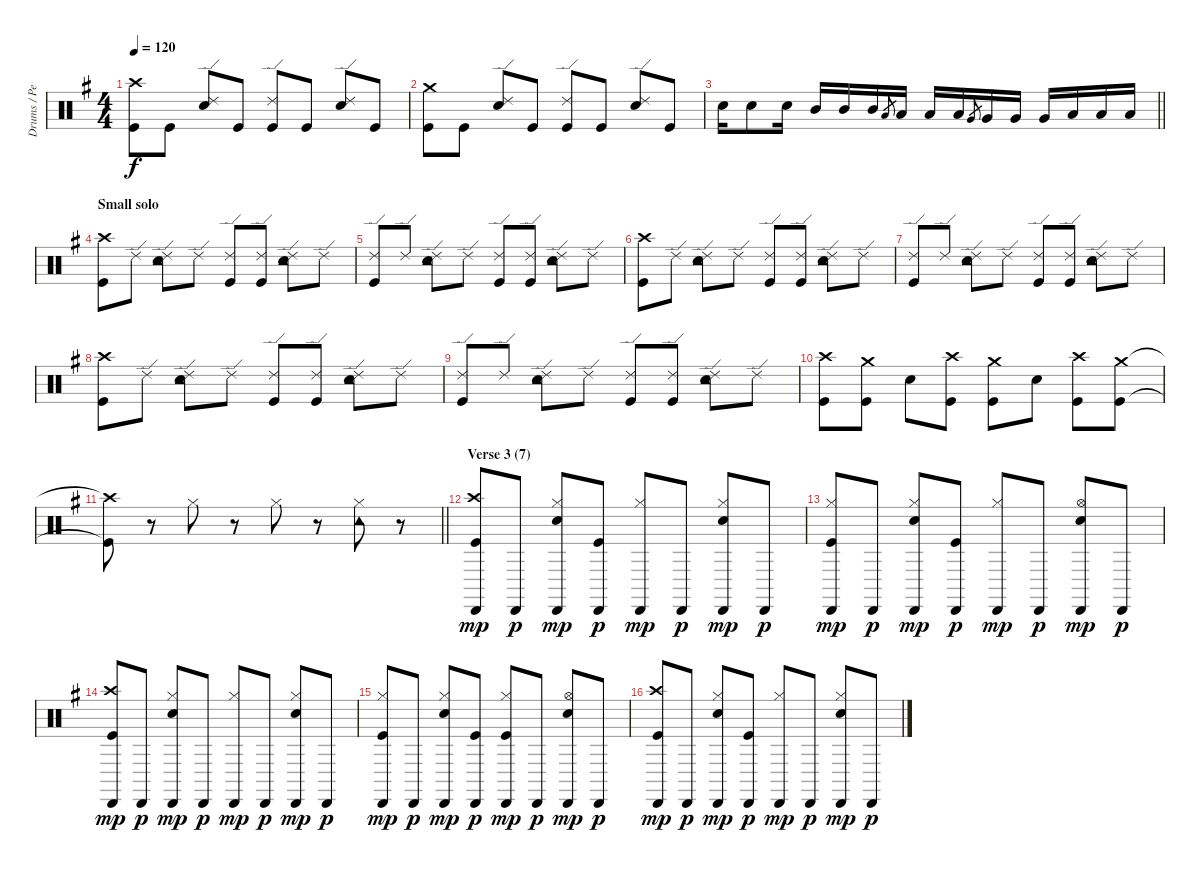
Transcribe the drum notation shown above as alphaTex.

\track ("Drums / Percussion" "Drums / Pe") {instrument percussion}
\staff {score}
\articulation defaults
\ts (4 4)
\tempo 120
\clef neutral
\ks eminor
("Crash high (hit)" "Kick (hit)").8{dy f} "Kick (hit)".8 ("Ride (edge) 2" "Snare (hit) 2").8 "Kick (hit)".8 ("Ride (edge) 2" "Kick (hit)").8 "Kick (hit)".8 ("Ride (edge) 2" "Snare (hit) 2").8 "Kick (hit)".8 |
("Crash medium (hit)" "Kick (hit)").8 "Kick (hit)".8 ("Ride (edge) 2" "Snare (hit) 2").8 "Kick (hit)".8 ("Ride (edge) 2" "Kick (hit)").8 "Kick (hit)".8 ("Ride (edge) 2" "Snare (hit) 2").8 "Kick (hit)".8 |
\barLineRight lightlight "Snare (hit) 2".16{balance 8} "Snare (hit) 2".8 "Snare (hit) 2".16 "Mid Tom (hit)".16{balance 0} "Mid Tom (hit)".16 "Mid Tom (hit)".16{balance 2} "Low Tom (hit)".8{gr} "Low Tom (hit)".16 "Low Tom (hit)".16{balance 4} "Low Tom (hit)".16 "Very Low Tom (hit)".8{gr} "Very Low Tom (hit)".16{balance 10} "Very Low Tom (hit)".16 "Very Low Tom (hit)".16{balance 12} "Low Floor Tom (hit)".16 "Low Floor Tom (hit)".16{balance 14} "Low Floor Tom (hit)".16
|
\section ("" "Small solo")
("Crash high (hit)" "Kick (hit)").8{balance 8} "Ride (edge) 2".8 ("Ride (edge) 2" "Tambourine (hit)" "Snare (hit) 2").8 "Ride (edge) 2".8 ("Ride (edge) 2" "Kick (hit)").8 ("Ride (edge) 2" "Kick (hit)").8 ("Ride (edge) 2" "Tambourine (hit)" "Snare (hit) 2").8 "Ride (edge) 2".8 |
("Ride (edge) 2" "Kick (hit)").8 "Ride (edge) 2".8 ("Ride (edge) 2" "Tambourine (hit)" "Snare (hit) 2").8 "Ride (edge) 2".8 ("Ride (edge) 2" "Kick (hit)").8 ("Ride (edge) 2" "Kick (hit)").8 ("Ride (edge) 2" "Tambourine (hit)" "Snare (hit) 2").8 "Ride (edge) 2".8 |
("Crash high (hit)" "Kick (hit)").8 "Ride (edge) 2".8 ("Ride (edge) 2" "Tambourine (hit)" "Snare (hit) 2").8 "Ride (edge) 2".8 ("Ride (edge) 2" "Kick (hit)").8 ("Ride (edge) 2" "Kick (hit)").8 ("Ride (edge) 2" "Tambourine (hit)" "Snare (hit) 2").8 "Ride (edge) 2".8 |
("Ride (edge) 2" "Kick (hit)").8 "Ride (edge) 2".8 ("Ride (edge) 2" "Tambourine (hit)" "Snare (hit) 2").8 "Ride (edge) 2".8 ("Ride (edge) 2" "Kick (hit)").8 ("Ride (edge) 2" "Kick (hit)").8 ("Ride (edge) 2" "Tambourine (hit)" "Snare (hit) 2").8 "Ride (edge) 2".8 |
("Crash high (hit)" "Kick (hit)").8 "Ride (edge) 2".8 ("Ride (edge) 2" "Tambourine (hit)" "Snare (hit) 2").8 "Ride (edge) 2".8 ("Ride (edge) 2" "Kick (hit)").8 ("Ride (edge) 2" "Kick (hit)").8 ("Ride (edge) 2" "Tambourine (hit)" "Snare (hit) 2").8 "Ride (edge) 2".8 |
("Ride (edge) 2" "Kick (hit)").8 "Ride (edge) 2".8 ("Ride (edge) 2" "Tambourine (hit)" "Snare (hit) 2").8 "Ride (edge) 2".8 ("Ride (edge) 2" "Kick (hit)").8 ("Ride (edge) 2" "Kick (hit)").8 ("Ride (edge) 2" "Tambourine (hit)" "Snare (hit) 2").8 "Ride (edge) 2".8 |
("Crash high (hit)" "Kick (hit)").8 ("Crash medium (hit)" "Kick (hit)").8 "Snare (hit) 2".8 ("Crash high (hit)" "Kick (hit)").8 ("Crash medium (hit)" "Kick (hit)").8 "Snare (hit) 2".8 ("Crash high (hit)" "Kick (hit)").8 ("Crash medium (hit)" "Kick (hit)").8 |
\barLineRight lightlight
("Crash high (hit)"{t} "Kick (hit)"{t}).8 r.8 "Hi-Hat (closed)".8 r.8 "Hi-Hat (closed)".8 r.8 ("Hi-Hat (closed)" "Tambourine (hit)").8 r.8 |
\section ("" "Verse 3 (7)")
("Crash high (hit)" "Cabasa (hit)" "Kick (hit)").8{dy mp} "Cabasa (hit)".8{dy p} ("Hi-Hat (closed)" "Cabasa (hit)" "Snare (hit) 2").8{dy mp} ("Cabasa (hit)" "Kick (hit)").8{dy p} ("Hi-Hat (closed)" "Cabasa (hit)").8{dy mp} "Cabasa (hit)".8{dy p} ("Hi-Hat (closed)" "Cabasa (hit)" "Snare (hit) 2").8{dy mp} "Cabasa (hit)".8{dy p} |
("Hi-Hat (closed)" "Cabasa (hit)" "Kick (hit)").8{dy mp} "Cabasa (hit)".8{dy p} ("Hi-Hat (closed)" "Cabasa (hit)" "Snare (hit) 2").8{dy mp} ("Cabasa (hit)" "Kick (hit)").8{dy p} ("Hi-Hat (closed)" "Cabasa (hit)").8{dy mp} "Cabasa (hit)".8{dy p} ("Hi-Hat (open)" "Cabasa (hit)" "Snare (hit) 2").8{dy mp} "Cabasa (hit)".8{dy p} |
("Crash high (hit)" "Cabasa (hit)" "Kick (hit)").8{dy mp} "Cabasa (hit)".8{dy p} ("Hi-Hat (closed)" "Cabasa (hit)" "Snare (hit) 2").8{dy mp} "Cabasa (hit)".8{dy p} ("Hi-Hat (closed)" "Cabasa (hit)").8{dy mp} "Cabasa (hit)".8{dy p} ("Hi-Hat (closed)" "Cabasa (hit)" "Snare (hit) 2").8{dy mp} "Cabasa (hit)".8{dy p} |
("Hi-Hat (closed)" "Cabasa (hit)" "Kick (hit)").8{dy mp} "Cabasa (hit)".8{dy p} ("Hi-Hat (closed)" "Cabasa (hit)" "Snare (hit) 2").8{dy mp} ("Cabasa (hit)" "Kick (hit)").8{dy p} ("Hi-Hat (closed)" "Cabasa (hit)" "Kick (hit)").8{dy mp} "Cabasa (hit)".8{dy p} ("Hi-Hat (open)" "Cabasa (hit)" "Snare (hit) 2").8{dy mp} "Cabasa (hit)".8{dy p} |
("Crash high (hit)" "Cabasa (hit)" "Kick (hit)").8{dy mp} "Cabasa (hit)".8{dy p} ("Hi-Hat (closed)" "Cabasa (hit)" "Snare (hit) 2").8{dy mp} ("Cabasa (hit)" "Kick (hit)").8{dy p} ("Hi-Hat (closed)" "Cabasa (hit)").8{dy mp} "Cabasa (hit)".8{dy p} ("Hi-Hat (closed)" "Cabasa (hit)" "Snare (hit) 2").8{dy mp} "Cabasa (hit)".8{dy p}
